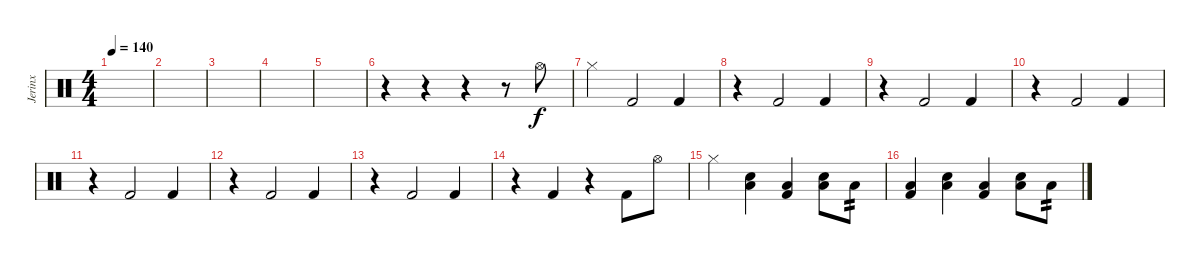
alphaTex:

\track ("Jerinx" "Jerinx") {instrument percussion}
\staff {score}
\articulation defaults
\ts (4 4)
\tempo 140
\clef neutral
\ks c
|
|
|
|
|
r.4 r.4 r.4 r.8 "Hi-Hat (open)".8 |
"Hi-Hat (closed)".4 "Kick (hit) 2".2 "Kick (hit) 2".4 |
r.4 "Kick (hit) 2".2 "Kick (hit) 2".4 |
r.4 "Kick (hit) 2".2 "Kick (hit) 2".4 |
r.4 "Kick (hit) 2".2 "Kick (hit) 2".4 |
r.4 "Kick (hit) 2".2 "Kick (hit) 2".4 |
r.4 "Kick (hit) 2".2 "Kick (hit) 2".4 |
r.4 "Kick (hit) 2".2 "Kick (hit) 2".4 |
r.4 "Kick (hit) 2".4 r.4 "Kick (hit) 2".8 "Hi-Hat (open)".8 |
"Hi-Hat (closed)".4 ("Low Floor Tom (hit)" "Electric Snare (hit)").4 ("Low Floor Tom (hit)" "Kick (hit) 2").4 ("Low Floor Tom (hit)" "Electric Snare (hit)").8 "Low Floor Tom (hit)".8{tp 2} |
("Low Floor Tom (hit)" "Kick (hit) 2").4 ("Low Floor Tom (hit)" "Electric Snare (hit)").4 ("Low Floor Tom (hit)" "Kick (hit) 2").4 ("Low Floor Tom (hit)" "Electric Snare (hit)").8 "Low Floor Tom (hit)".8{tp 2}
